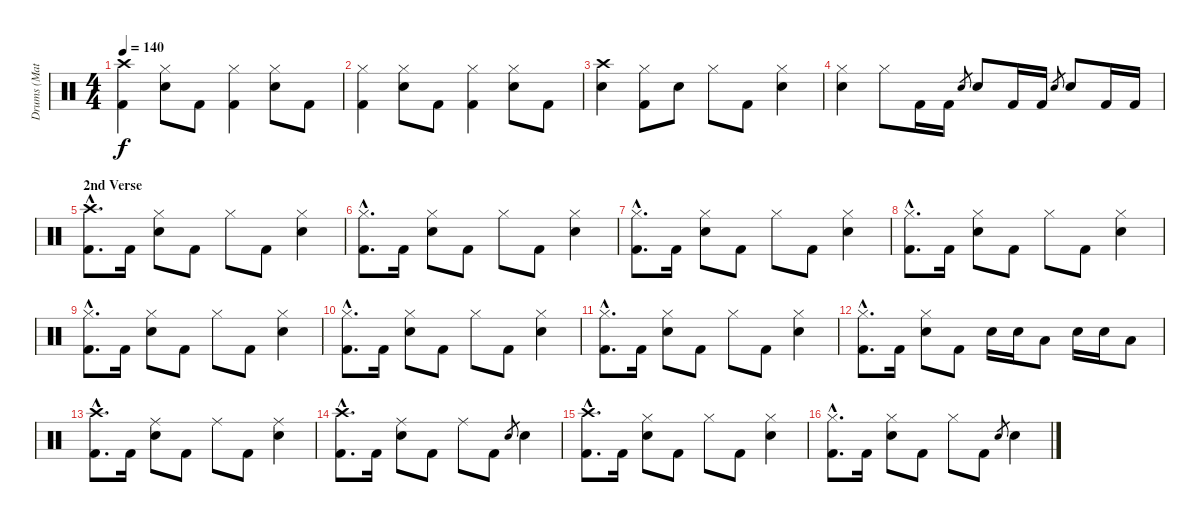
\track ("Drums (Matt)" "Drums (Mat") {instrument percussion}
\staff {score}
\articulation defaults
\ts (4 4)
\tempo 140
\clef neutral
\ks c
("Crash high (hit)" "Kick (hit) 2").4{dy f} ("Hi-Hat (closed)" "Snare (hit) 2").8 "Kick (hit) 2".8 ("Hi-Hat (closed)" "Kick (hit) 2").4 ("Hi-Hat (closed)" "Snare (hit) 2").8 "Kick (hit) 2".8 |
("Hi-Hat (closed)" "Kick (hit) 2").4 ("Hi-Hat (closed)" "Snare (hit) 2").8 "Kick (hit) 2".8 ("Hi-Hat (closed)" "Kick (hit) 2").4 ("Hi-Hat (closed)" "Snare (hit) 2").8 "Kick (hit) 2".8 |
("Crash high (hit)" "Snare (hit) 2").4 ("Hi-Hat (closed)" "Kick (hit) 2").8 "Snare (hit) 2".8 "Hi-Hat (closed)".8 "Kick (hit) 2".8 ("Hi-Hat (closed)" "Snare (hit) 2").4 |
("Hi-Hat (closed)" "Snare (hit) 2").4 "Hi-Hat (closed)".8 "Kick (hit) 2".16 "Kick (hit) 2".16 "Snare (hit) 2".8{gr} "Snare (hit) 2".8 "Kick (hit) 2".16 "Kick (hit) 2".16 "Snare (hit) 2".8{gr} "Snare (hit) 2".8 "Kick (hit) 2".16 "Kick (hit) 2".16 |
\section ("" "2nd Verse")
("Crash high (hit)"{hac} "Kick (hit) 2"{hac}).8{d} "Kick (hit) 2".16 ("Hi-Hat (closed)" "Snare (hit) 2").8 "Kick (hit) 2".8 "Hi-Hat (closed)".8 "Kick (hit) 2".8 ("Hi-Hat (closed)" "Snare (hit) 2").4 |
("Hi-Hat (closed)"{hac} "Kick (hit) 2"{hac}).8{d} "Kick (hit) 2".16 ("Hi-Hat (closed)" "Snare (hit) 2").8 "Kick (hit) 2".8 "Hi-Hat (closed)".8 "Kick (hit) 2".8 ("Hi-Hat (closed)" "Snare (hit) 2").4 |
("Hi-Hat (closed)"{hac} "Kick (hit) 2"{hac}).8{d} "Kick (hit) 2".16 ("Hi-Hat (closed)" "Snare (hit) 2").8 "Kick (hit) 2".8 "Hi-Hat (closed)".8 "Kick (hit) 2".8 ("Hi-Hat (closed)" "Snare (hit) 2").4 |
("Hi-Hat (closed)"{hac} "Kick (hit) 2"{hac}).8{d} "Kick (hit) 2".16 ("Hi-Hat (closed)" "Snare (hit) 2").8 "Kick (hit) 2".8 "Hi-Hat (closed)".8 "Kick (hit) 2".8 ("Hi-Hat (closed)" "Snare (hit) 2").4 |
("Hi-Hat (closed)"{hac} "Kick (hit) 2"{hac}).8{d} "Kick (hit) 2".16 ("Hi-Hat (closed)" "Snare (hit) 2").8 "Kick (hit) 2".8 "Hi-Hat (closed)".8 "Kick (hit) 2".8 ("Hi-Hat (closed)" "Snare (hit) 2").4 |
("Hi-Hat (closed)"{hac} "Kick (hit) 2"{hac}).8{d} "Kick (hit) 2".16 ("Hi-Hat (closed)" "Snare (hit) 2").8 "Kick (hit) 2".8 "Hi-Hat (closed)".8 "Kick (hit) 2".8 ("Hi-Hat (closed)" "Snare (hit) 2").4 |
("Hi-Hat (closed)"{hac} "Kick (hit) 2"{hac}).8{d} "Kick (hit) 2".16 ("Hi-Hat (closed)" "Snare (hit) 2").8 "Kick (hit) 2".8 "Hi-Hat (closed)".8 "Kick (hit) 2".8 ("Hi-Hat (closed)" "Snare (hit) 2").4 |
("Hi-Hat (closed)"{hac} "Kick (hit) 2"{hac}).8{d} "Kick (hit) 2".16 ("Hi-Hat (closed)" "Snare (hit) 2").8 "Kick (hit) 2".8 "Snare (hit) 2".16 "Snare (hit) 2".16 "Low Tom (hit)".8 "Snare (hit) 2".16 "Snare (hit) 2".16 "Low Tom (hit)".8 |
("Crash high (hit)"{hac} "Kick (hit) 2"{hac}).8{d} "Kick (hit) 2".16 ("Ride (middle)" "Snare (hit) 2").8 "Kick (hit) 2".8 "Ride (middle)".8 "Kick (hit) 2".8 ("Ride (middle)" "Snare (hit) 2").4 |
("Crash high (hit)"{hac} "Kick (hit) 2"{hac}).8{d} "Kick (hit) 2".16 ("Ride (middle)" "Snare (hit) 2").8 "Kick (hit) 2".8 "Ride (middle)".8 "Kick (hit) 2".8 "Snare (hit) 2".8{gr} "Snare (hit) 2".4 |
("Crash high (hit)"{hac} "Kick (hit) 2"{hac}).8{d} "Kick (hit) 2".16 ("Hi-Hat (closed)" "Snare (hit) 2").8 "Kick (hit) 2".8 "Hi-Hat (closed)".8 "Kick (hit) 2".8 ("Hi-Hat (closed)" "Snare (hit) 2").4 |
("Hi-Hat (closed)"{hac} "Kick (hit) 2"{hac}).8{d} "Kick (hit) 2".16 ("Hi-Hat (closed)" "Snare (hit) 2").8 "Kick (hit) 2".8 "Hi-Hat (closed)".8 "Kick (hit) 2".8 "Snare (hit) 2".8{gr} "Snare (hit) 2".4
